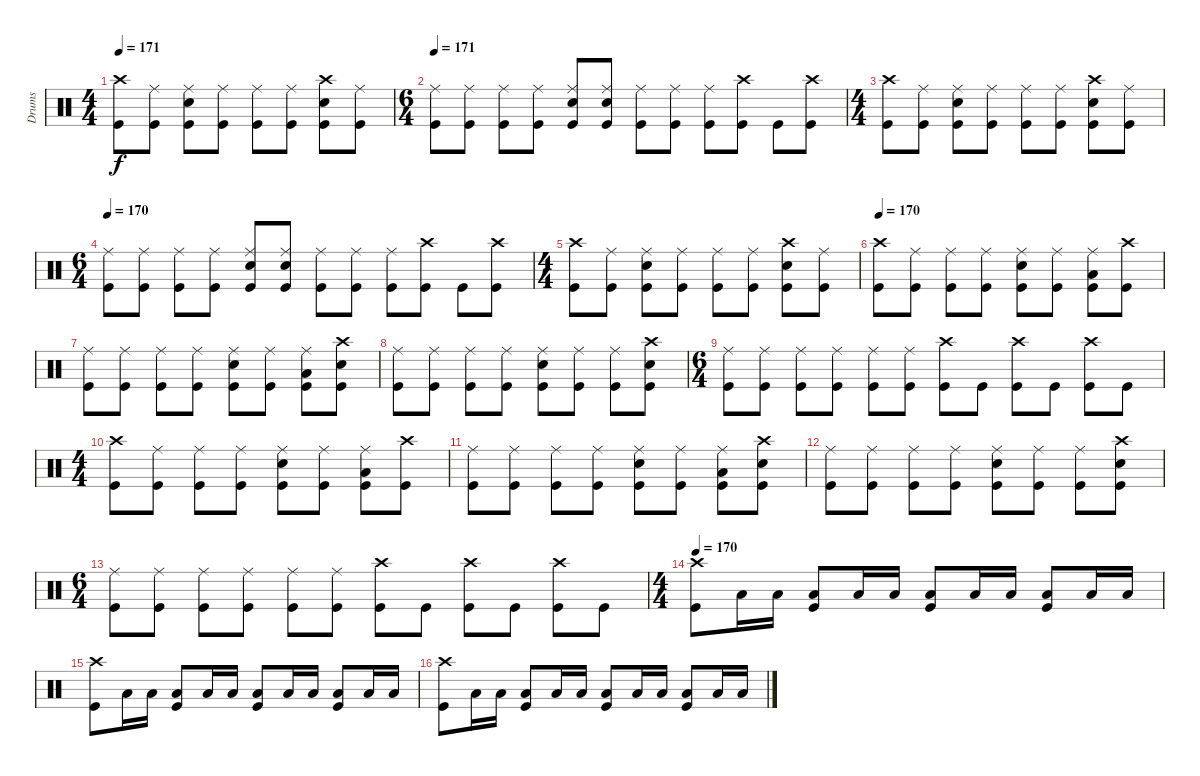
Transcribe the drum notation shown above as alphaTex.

\track ("Drums" "Drums") {instrument percussion}
\staff {score}
\articulation defaults
\ts (4 4)
\tempo 171
\clef neutral
\ks c
("Crash high (hit)" "Kick (hit)").8{dy f} ("Ride (middle)" "Kick (hit)").8 ("Ride (middle)" "Electric Snare (hit)" "Kick (hit)").8 ("Ride (middle)" "Kick (hit)").8 ("Ride (middle)" "Kick (hit)").8 ("Ride (middle)" "Kick (hit)").8 ("Crash high (hit)" "Electric Snare (hit)" "Kick (hit)").8 ("Ride (middle)" "Kick (hit)").8 |
\ts (6 4)
\tempo 170
\tempo 171
("Ride (middle)" "Kick (hit)").8 ("Ride (middle)" "Kick (hit)").8 ("Ride (middle)" "Kick (hit)").8 ("Ride (middle)" "Kick (hit)").8 ("Ride (middle)" "Electric Snare (hit)" "Kick (hit)").8 ("Ride (middle)" "Electric Snare (hit)" "Kick (hit)").8 ("Ride (middle)" "Kick (hit)").8 ("Ride (middle)" "Kick (hit)").8 ("Ride (middle)" "Kick (hit)").8 ("Crash high (hit)" "Kick (hit)").8 "Kick (hit)".8 ("Crash high (hit)" "Kick (hit)").8 |
\ts (4 4)
("Crash high (hit)" "Kick (hit)").8 ("Ride (middle)" "Kick (hit)").8 ("Ride (middle)" "Electric Snare (hit)" "Kick (hit)").8 ("Ride (middle)" "Kick (hit)").8 ("Ride (middle)" "Kick (hit)").8 ("Ride (middle)" "Kick (hit)").8 ("Crash high (hit)" "Electric Snare (hit)" "Kick (hit)").8 ("Ride (middle)" "Kick (hit)").8 |
\ts (6 4)
\tempo 170
("Ride (middle)" "Kick (hit)").8 ("Ride (middle)" "Kick (hit)").8 ("Ride (middle)" "Kick (hit)").8 ("Ride (middle)" "Kick (hit)").8 ("Ride (middle)" "Electric Snare (hit)" "Kick (hit)").8 ("Ride (middle)" "Electric Snare (hit)" "Kick (hit)").8 ("Ride (middle)" "Kick (hit)").8 ("Ride (middle)" "Kick (hit)").8 ("Ride (middle)" "Kick (hit)").8 ("Crash high (hit)" "Kick (hit)").8 "Kick (hit)".8 ("Crash high (hit)" "Kick (hit)").8 |
\ts (4 4)
("Crash high (hit)" "Kick (hit)").8 ("Ride (middle)" "Kick (hit)").8 ("Ride (middle)" "Electric Snare (hit)" "Kick (hit)").8 ("Ride (middle)" "Kick (hit)").8 ("Ride (middle)" "Kick (hit)").8 ("Ride (middle)" "Kick (hit)").8 ("Crash high (hit)" "Electric Snare (hit)" "Kick (hit)").8 ("Ride (middle)" "Kick (hit)").8 |
\tempo 170
("Crash high (hit)" "Kick (hit)").8 ("Ride (middle)" "Kick (hit)").8 ("Ride (middle)" "Kick (hit)").8 ("Ride (middle)" "Kick (hit)").8 ("Ride (middle)" "Electric Snare (hit)" "Kick (hit)").8 ("Ride (middle)" "Kick (hit)").8 ("Ride (middle)" "Low Tom (hit)" "Kick (hit)").8 ("Crash high (hit)" "Kick (hit)").8 |
("Ride (middle)" "Kick (hit)").8 ("Ride (middle)" "Kick (hit)").8 ("Ride (middle)" "Kick (hit)").8 ("Ride (middle)" "Kick (hit)").8 ("Ride (middle)" "Electric Snare (hit)" "Kick (hit)").8 ("Ride (middle)" "Kick (hit)").8 ("Ride (middle)" "Low Tom (hit)" "Kick (hit)").8 ("Crash high (hit)" "Electric Snare (hit)" "Kick (hit)").8 |
("Ride (middle)" "Kick (hit)").8 ("Ride (middle)" "Kick (hit)").8 ("Ride (middle)" "Kick (hit)").8 ("Ride (middle)" "Kick (hit)").8 ("Ride (middle)" "Electric Snare (hit)" "Kick (hit)").8 ("Ride (middle)" "Kick (hit)").8 ("Ride (middle)" "Kick (hit)").8 ("Crash high (hit)" "Electric Snare (hit)" "Kick (hit)").8 |
\ts (6 4)
("Ride (middle)" "Kick (hit)").8 ("Ride (middle)" "Kick (hit)").8 ("Ride (middle)" "Kick (hit)").8 ("Ride (middle)" "Kick (hit)").8 ("Ride (middle)" "Kick (hit)").8 ("Ride (middle)" "Kick (hit)").8 ("Crash high (hit)" "Kick (hit)").8 "Kick (hit)".8 ("Crash high (hit)" "Kick (hit)").8 "Kick (hit)".8 ("Crash high (hit)" "Kick (hit)").8 "Kick (hit)".8 |
\ts (4 4)
("Crash high (hit)" "Kick (hit)").8 ("Ride (middle)" "Kick (hit)").8 ("Ride (middle)" "Kick (hit)").8 ("Ride (middle)" "Kick (hit)").8 ("Ride (middle)" "Electric Snare (hit)" "Kick (hit)").8 ("Ride (middle)" "Kick (hit)").8 ("Ride (middle)" "Low Tom (hit)" "Kick (hit)").8 ("Crash high (hit)" "Kick (hit)").8 |
("Ride (middle)" "Kick (hit)").8 ("Ride (middle)" "Kick (hit)").8 ("Ride (middle)" "Kick (hit)").8 ("Ride (middle)" "Kick (hit)").8 ("Ride (middle)" "Electric Snare (hit)" "Kick (hit)").8 ("Ride (middle)" "Kick (hit)").8 ("Ride (middle)" "Low Tom (hit)" "Kick (hit)").8 ("Crash high (hit)" "Electric Snare (hit)" "Kick (hit)").8 |
("Ride (middle)" "Kick (hit)").8 ("Ride (middle)" "Kick (hit)").8 ("Ride (middle)" "Kick (hit)").8 ("Ride (middle)" "Kick (hit)").8 ("Ride (middle)" "Electric Snare (hit)" "Kick (hit)").8 ("Ride (middle)" "Kick (hit)").8 ("Ride (middle)" "Kick (hit)").8 ("Crash high (hit)" "Electric Snare (hit)" "Kick (hit)").8 |
\ts (6 4)
("Ride (middle)" "Kick (hit)").8 ("Ride (middle)" "Kick (hit)").8 ("Ride (middle)" "Kick (hit)").8 ("Ride (middle)" "Kick (hit)").8 ("Ride (middle)" "Kick (hit)").8 ("Ride (middle)" "Kick (hit)").8 ("Crash high (hit)" "Kick (hit)").8 "Kick (hit)".8 ("Crash high (hit)" "Kick (hit)").8 "Kick (hit)".8 ("Crash high (hit)" "Kick (hit)").8 "Kick (hit)".8 |
\ts (4 4)
\tempo 170
("Crash high (hit)" "Kick (hit)").8 "Low Tom (hit)".16 "Low Tom (hit)".16 ("Low Tom (hit)" "Kick (hit)").8 "Low Tom (hit)".16 "Low Tom (hit)".16 ("Low Tom (hit)" "Kick (hit)").8 "Low Tom (hit)".16 "Low Tom (hit)".16 ("Low Tom (hit)" "Kick (hit)").8 "Low Tom (hit)".16 "Low Tom (hit)".16 |
("Crash high (hit)" "Kick (hit)").8 "Low Tom (hit)".16 "Low Tom (hit)".16 ("Low Tom (hit)" "Kick (hit)").8 "Low Tom (hit)".16 "Low Tom (hit)".16 ("Low Tom (hit)" "Kick (hit)").8 "Low Tom (hit)".16 "Low Tom (hit)".16 ("Low Tom (hit)" "Kick (hit)").8 "Low Tom (hit)".16 "Low Tom (hit)".16 |
("Crash high (hit)" "Kick (hit)").8 "Low Tom (hit)".16 "Low Tom (hit)".16 ("Low Tom (hit)" "Kick (hit)").8 "Low Tom (hit)".16 "Low Tom (hit)".16 ("Low Tom (hit)" "Kick (hit)").8 "Low Tom (hit)".16 "Low Tom (hit)".16 ("Low Tom (hit)" "Kick (hit)").8 "Low Tom (hit)".16 "Low Tom (hit)".16
